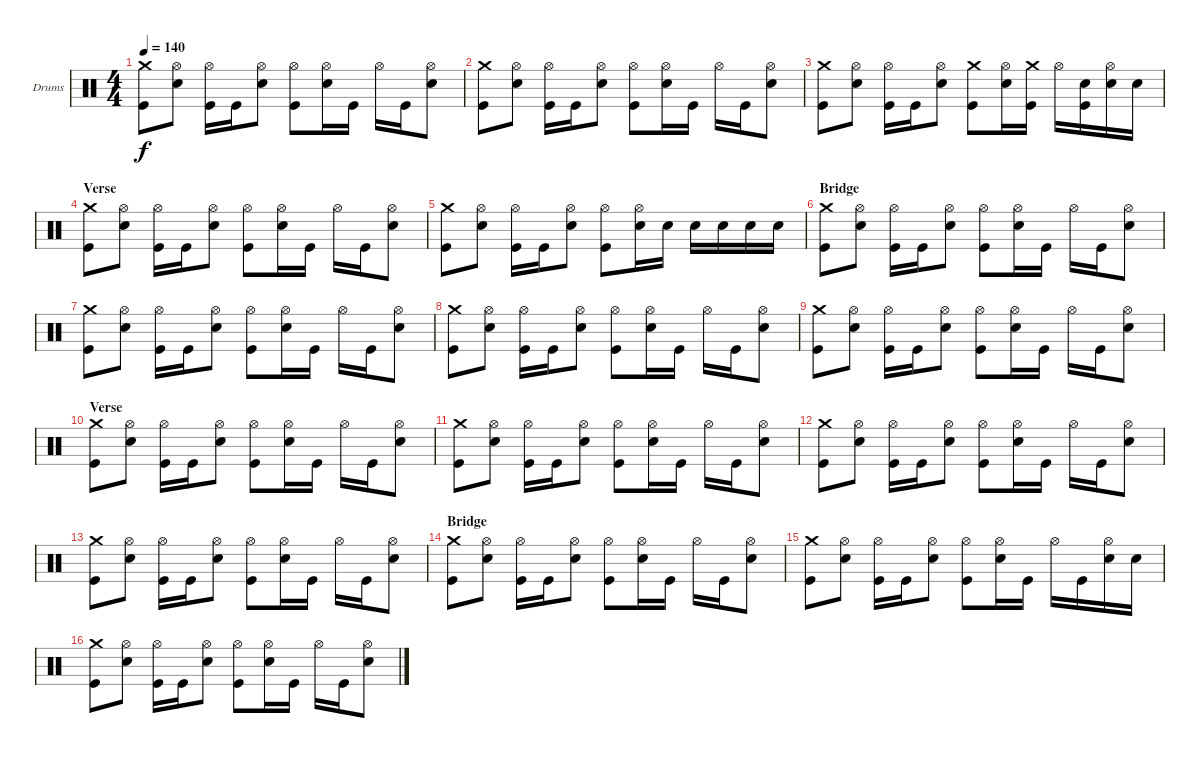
\defaultSystemsLayout 4
\bracketExtendMode nobrackets
\firstSystemTrackNameOrientation horizontal
\otherSystemsTrackNameOrientation horizontal
\track ("Phil Taylor" "Drums") {instrument percussion}
\staff {score}
\articulation defaults
\ts (4 4)
\tempo 140
\clef neutral
\ks c
("Crash medium (hit)" "Kick (hit)").8{dy f} ("Hi-Hat (open)" "Snare (hit) 2").8 ("Hi-Hat (open)" "Kick (hit)").16 "Kick (hit)".16 ("Hi-Hat (open)" "Snare (hit) 2").8 ("Hi-Hat (open)" "Kick (hit)").8 ("Hi-Hat (open)" "Snare (hit) 2").16 "Kick (hit)".16 "Hi-Hat (open)".16 "Kick (hit)".16 ("Hi-Hat (open)" "Snare (hit) 2").8 |
("Crash medium (hit)" "Kick (hit)").8 ("Hi-Hat (open)" "Snare (hit) 2").8 ("Hi-Hat (open)" "Kick (hit)").16 "Kick (hit)".16 ("Hi-Hat (open)" "Snare (hit) 2").8 ("Hi-Hat (open)" "Kick (hit)").8 ("Hi-Hat (open)" "Snare (hit) 2").16 "Kick (hit)".16 "Hi-Hat (open)".16 "Kick (hit)".16 ("Hi-Hat (open)" "Snare (hit) 2").8 |
("Crash medium (hit)" "Kick (hit)").8 ("Hi-Hat (open)" "Snare (hit) 2").8 ("Hi-Hat (open)" "Kick (hit)").16 "Kick (hit)".16 ("Hi-Hat (open)" "Snare (hit) 2").8 ("Crash medium (hit)" "Kick (hit)").8 ("Hi-Hat (open)" "Snare (hit) 2").16 ("Crash medium (hit)" "Kick (hit)").16 "Hi-Hat (open)".16 ("Snare (hit) 2" "Kick (hit)").16 ("Hi-Hat (open)" "Snare (hit) 2").16 "Snare (hit) 2".16 |
\section ("" "Verse")
("Crash medium (hit)" "Kick (hit)").8 ("Hi-Hat (open)" "Snare (hit) 2").8 ("Hi-Hat (open)" "Kick (hit)").16 "Kick (hit)".16 ("Hi-Hat (open)" "Snare (hit) 2").8 ("Hi-Hat (open)" "Kick (hit)").8 ("Hi-Hat (open)" "Snare (hit) 2").16 "Kick (hit)".16 "Hi-Hat (open)".16 "Kick (hit)".16 ("Hi-Hat (open)" "Snare (hit) 2").8 |
("Crash medium (hit)" "Kick (hit)").8 ("Hi-Hat (open)" "Snare (hit) 2").8 ("Hi-Hat (open)" "Kick (hit)").16 "Kick (hit)".16 ("Hi-Hat (open)" "Snare (hit) 2").8 ("Hi-Hat (open)" "Kick (hit)").8 ("Hi-Hat (open)" "Snare (hit) 2").16 "Snare (hit) 2".16 "Snare (hit) 2".16 "Snare (hit) 2".16 "Snare (hit) 2".16 "Snare (hit) 2".16 |
\section ("" "Bridge")
("Crash medium (hit)" "Kick (hit)").8 ("Hi-Hat (open)" "Snare (hit) 2").8 ("Hi-Hat (open)" "Kick (hit)").16 "Kick (hit)".16 ("Hi-Hat (open)" "Snare (hit) 2").8 ("Hi-Hat (open)" "Kick (hit)").8 ("Hi-Hat (open)" "Snare (hit) 2").16 "Kick (hit)".16 "Hi-Hat (open)".16 "Kick (hit)".16 ("Hi-Hat (open)" "Snare (hit) 2").8 |
("Crash medium (hit)" "Kick (hit)").8 ("Hi-Hat (open)" "Snare (hit) 2").8 ("Hi-Hat (open)" "Kick (hit)").16 "Kick (hit)".16 ("Hi-Hat (open)" "Snare (hit) 2").8 ("Hi-Hat (open)" "Kick (hit)").8 ("Hi-Hat (open)" "Snare (hit) 2").16 "Kick (hit)".16 "Hi-Hat (open)".16 "Kick (hit)".16 ("Hi-Hat (open)" "Snare (hit) 2").8 |
("Crash medium (hit)" "Kick (hit)").8 ("Hi-Hat (open)" "Snare (hit) 2").8 ("Hi-Hat (open)" "Kick (hit)").16 "Kick (hit)".16 ("Hi-Hat (open)" "Snare (hit) 2").8 ("Hi-Hat (open)" "Kick (hit)").8 ("Hi-Hat (open)" "Snare (hit) 2").16 "Kick (hit)".16 "Hi-Hat (open)".16 "Kick (hit)".16 ("Hi-Hat (open)" "Snare (hit) 2").8 |
("Crash medium (hit)" "Kick (hit)").8 ("Hi-Hat (open)" "Snare (hit) 2").8 ("Hi-Hat (open)" "Kick (hit)").16 "Kick (hit)".16 ("Hi-Hat (open)" "Snare (hit) 2").8 ("Hi-Hat (open)" "Kick (hit)").8 ("Hi-Hat (open)" "Snare (hit) 2").16 "Kick (hit)".16 "Hi-Hat (open)".16 "Kick (hit)".16 ("Hi-Hat (open)" "Snare (hit) 2").8 |
\section ("" "Verse")
("Crash medium (hit)" "Kick (hit)").8 ("Hi-Hat (open)" "Snare (hit) 2").8 ("Hi-Hat (open)" "Kick (hit)").16 "Kick (hit)".16 ("Hi-Hat (open)" "Snare (hit) 2").8 ("Hi-Hat (open)" "Kick (hit)").8 ("Hi-Hat (open)" "Snare (hit) 2").16 "Kick (hit)".16 "Hi-Hat (open)".16 "Kick (hit)".16 ("Hi-Hat (open)" "Snare (hit) 2").8 |
("Crash medium (hit)" "Kick (hit)").8 ("Hi-Hat (open)" "Snare (hit) 2").8 ("Hi-Hat (open)" "Kick (hit)").16 "Kick (hit)".16 ("Hi-Hat (open)" "Snare (hit) 2").8 ("Hi-Hat (open)" "Kick (hit)").8 ("Hi-Hat (open)" "Snare (hit) 2").16 "Kick (hit)".16 "Hi-Hat (open)".16 "Kick (hit)".16 ("Hi-Hat (open)" "Snare (hit) 2").8 |
("Crash medium (hit)" "Kick (hit)").8 ("Hi-Hat (open)" "Snare (hit) 2").8 ("Hi-Hat (open)" "Kick (hit)").16 "Kick (hit)".16 ("Hi-Hat (open)" "Snare (hit) 2").8 ("Hi-Hat (open)" "Kick (hit)").8 ("Hi-Hat (open)" "Snare (hit) 2").16 "Kick (hit)".16 "Hi-Hat (open)".16 "Kick (hit)".16 ("Hi-Hat (open)" "Snare (hit) 2").8 |
("Crash medium (hit)" "Kick (hit)").8 ("Hi-Hat (open)" "Snare (hit) 2").8 ("Hi-Hat (open)" "Kick (hit)").16 "Kick (hit)".16 ("Hi-Hat (open)" "Snare (hit) 2").8 ("Hi-Hat (open)" "Kick (hit)").8 ("Hi-Hat (open)" "Snare (hit) 2").16 "Kick (hit)".16 "Hi-Hat (open)".16 "Kick (hit)".16 ("Hi-Hat (open)" "Snare (hit) 2").8 |
\section ("" "Bridge")
("Crash medium (hit)" "Kick (hit)").8 ("Hi-Hat (open)" "Snare (hit) 2").8 ("Hi-Hat (open)" "Kick (hit)").16 "Kick (hit)".16 ("Hi-Hat (open)" "Snare (hit) 2").8 ("Hi-Hat (open)" "Kick (hit)").8 ("Hi-Hat (open)" "Snare (hit) 2").16 "Kick (hit)".16 "Hi-Hat (open)".16 "Kick (hit)".16 ("Hi-Hat (open)" "Snare (hit) 2").8 |
("Crash medium (hit)" "Kick (hit)").8 ("Hi-Hat (open)" "Snare (hit) 2").8 ("Hi-Hat (open)" "Kick (hit)").16 "Kick (hit)".16 ("Hi-Hat (open)" "Snare (hit) 2").8 ("Hi-Hat (open)" "Kick (hit)").8 ("Hi-Hat (open)" "Snare (hit) 2").16 "Kick (hit)".16 "Hi-Hat (open)".16 "Kick (hit)".16 ("Hi-Hat (open)" "Snare (hit) 2").16 "Snare (hit) 2".16 |
("Crash medium (hit)" "Kick (hit)").8 ("Hi-Hat (open)" "Snare (hit) 2").8 ("Hi-Hat (open)" "Kick (hit)").16 "Kick (hit)".16 ("Hi-Hat (open)" "Snare (hit) 2").8 ("Hi-Hat (open)" "Kick (hit)").8 ("Hi-Hat (open)" "Snare (hit) 2").16 "Kick (hit)".16 "Hi-Hat (open)".16 "Kick (hit)".16 ("Hi-Hat (open)" "Snare (hit) 2").8
